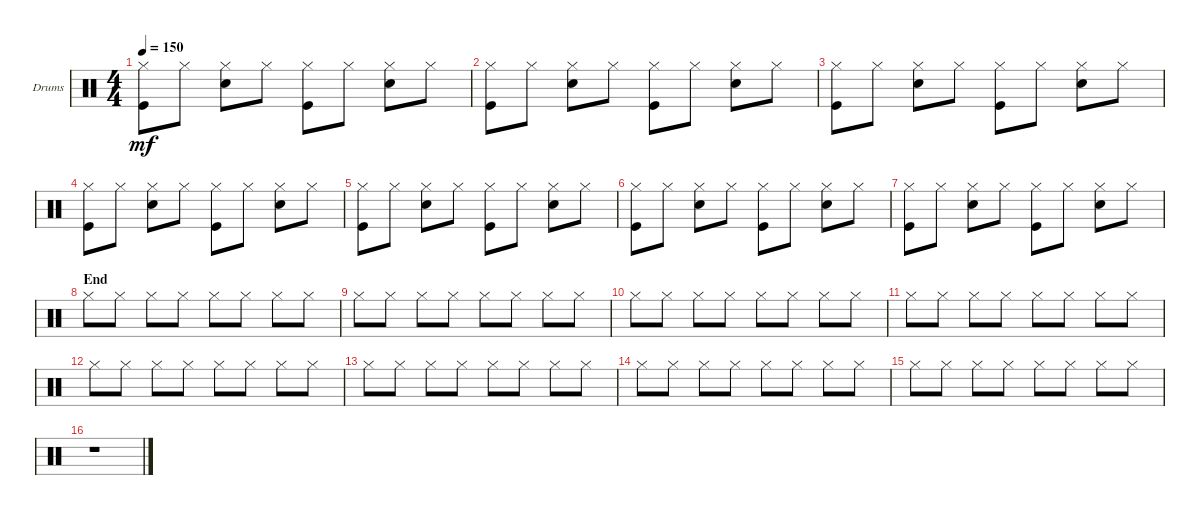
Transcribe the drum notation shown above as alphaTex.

\defaultSystemsLayout 4
\bracketExtendMode groupsimilarinstruments
\firstSystemTrackNameOrientation horizontal
\otherSystemsTrackNameOrientation horizontal
\chordDiagramsInScore
\track ("Drumkit" "Drums") {instrument percussion}
\staff {score}
\articulation defaults
\ts (4 4)
\tempo 150
\clef neutral
\ks c
("Kick (hit)" "Hi-Hat (closed)").8{dy mf} "Hi-Hat (closed)".8 ("Snare (hit) 2" "Hi-Hat (closed)").8 "Hi-Hat (closed)".8 ("Kick (hit)" "Hi-Hat (closed)").8 "Hi-Hat (closed)".8 ("Snare (hit) 2" "Hi-Hat (closed)").8 "Hi-Hat (closed)".8 |
("Kick (hit)" "Hi-Hat (closed)").8 "Hi-Hat (closed)".8 ("Snare (hit) 2" "Hi-Hat (closed)").8 "Hi-Hat (closed)".8 ("Kick (hit)" "Hi-Hat (closed)").8 "Hi-Hat (closed)".8 ("Snare (hit) 2" "Hi-Hat (closed)").8 "Hi-Hat (closed)".8 |
("Kick (hit)" "Hi-Hat (closed)").8 "Hi-Hat (closed)".8 ("Snare (hit) 2" "Hi-Hat (closed)").8 "Hi-Hat (closed)".8 ("Kick (hit)" "Hi-Hat (closed)").8 "Hi-Hat (closed)".8 ("Snare (hit) 2" "Hi-Hat (closed)").8 "Hi-Hat (closed)".8 |
("Kick (hit)" "Hi-Hat (closed)").8 "Hi-Hat (closed)".8 ("Snare (hit) 2" "Hi-Hat (closed)").8 "Hi-Hat (closed)".8 ("Kick (hit)" "Hi-Hat (closed)").8 "Hi-Hat (closed)".8 ("Snare (hit) 2" "Hi-Hat (closed)").8 "Hi-Hat (closed)".8 |
("Kick (hit)" "Hi-Hat (closed)").8 "Hi-Hat (closed)".8 ("Snare (hit) 2" "Hi-Hat (closed)").8 "Hi-Hat (closed)".8 ("Kick (hit)" "Hi-Hat (closed)").8 "Hi-Hat (closed)".8 ("Snare (hit) 2" "Hi-Hat (closed)").8 "Hi-Hat (closed)".8 |
("Kick (hit)" "Hi-Hat (closed)").8 "Hi-Hat (closed)".8 ("Snare (hit) 2" "Hi-Hat (closed)").8 "Hi-Hat (closed)".8 ("Kick (hit)" "Hi-Hat (closed)").8 "Hi-Hat (closed)".8 ("Snare (hit) 2" "Hi-Hat (closed)").8 "Hi-Hat (closed)".8 |
("Kick (hit)" "Hi-Hat (closed)").8 "Hi-Hat (closed)".8 ("Snare (hit) 2" "Hi-Hat (closed)").8 "Hi-Hat (closed)".8 ("Kick (hit)" "Hi-Hat (closed)").8 "Hi-Hat (closed)".8 ("Snare (hit) 2" "Hi-Hat (closed)").8 "Hi-Hat (closed)".8 |
\section ("" "End")
"Hi-Hat (closed)".8 "Hi-Hat (closed)".8 "Hi-Hat (closed)".8 "Hi-Hat (closed)".8 "Hi-Hat (closed)".8 "Hi-Hat (closed)".8 "Hi-Hat (closed)".8 "Hi-Hat (closed)".8 |
"Hi-Hat (closed)".8 "Hi-Hat (closed)".8 "Hi-Hat (closed)".8 "Hi-Hat (closed)".8 "Hi-Hat (closed)".8 "Hi-Hat (closed)".8 "Hi-Hat (closed)".8 "Hi-Hat (closed)".8 |
"Hi-Hat (closed)".8 "Hi-Hat (closed)".8 "Hi-Hat (closed)".8 "Hi-Hat (closed)".8 "Hi-Hat (closed)".8 "Hi-Hat (closed)".8 "Hi-Hat (closed)".8 "Hi-Hat (closed)".8 |
"Hi-Hat (closed)".8 "Hi-Hat (closed)".8 "Hi-Hat (closed)".8 "Hi-Hat (closed)".8 "Hi-Hat (closed)".8 "Hi-Hat (closed)".8 "Hi-Hat (closed)".8 "Hi-Hat (closed)".8 |
"Hi-Hat (closed)".8 "Hi-Hat (closed)".8 "Hi-Hat (closed)".8 "Hi-Hat (closed)".8 "Hi-Hat (closed)".8 "Hi-Hat (closed)".8 "Hi-Hat (closed)".8 "Hi-Hat (closed)".8 |
"Hi-Hat (closed)".8 "Hi-Hat (closed)".8 "Hi-Hat (closed)".8 "Hi-Hat (closed)".8 "Hi-Hat (closed)".8 "Hi-Hat (closed)".8 "Hi-Hat (closed)".8 "Hi-Hat (closed)".8 |
"Hi-Hat (closed)".8 "Hi-Hat (closed)".8 "Hi-Hat (closed)".8 "Hi-Hat (closed)".8 "Hi-Hat (closed)".8 "Hi-Hat (closed)".8 "Hi-Hat (closed)".8 "Hi-Hat (closed)".8 |
"Hi-Hat (closed)".8 "Hi-Hat (closed)".8 "Hi-Hat (closed)".8 "Hi-Hat (closed)".8 "Hi-Hat (closed)".8 "Hi-Hat (closed)".8 "Hi-Hat (closed)".8 "Hi-Hat (closed)".8 |
r.1
